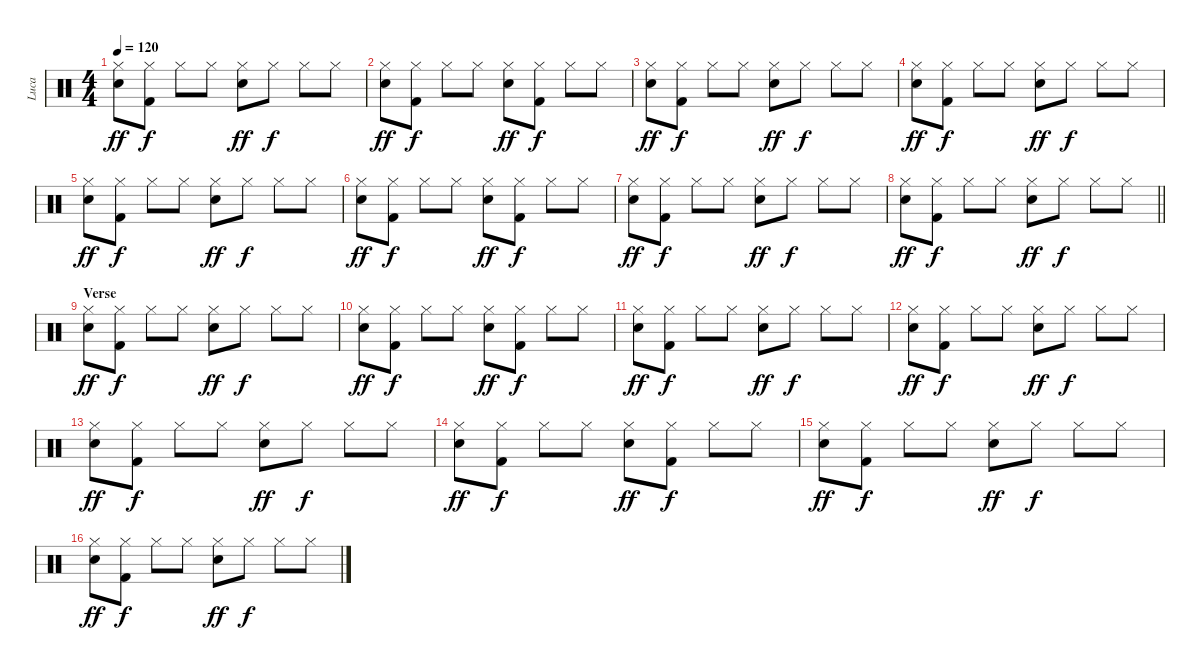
\track ("Luca" "Luca") {instrument percussion}
\staff {score}
\articulation defaults
\ts (4 4)
\tempo 120
\clef neutral
\ks c
("Hi-Hat (closed)" "Snare (hit) 2").8{dy ff} ("Hi-Hat (closed)" "Kick (hit) 2").8{dy f} "Hi-Hat (closed)".8 "Hi-Hat (closed)".8 ("Hi-Hat (closed)" "Snare (hit) 2").8{dy ff} "Hi-Hat (closed)".8{dy f} "Hi-Hat (closed)".8 "Hi-Hat (closed)".8 |
("Hi-Hat (closed)" "Snare (hit) 2").8{dy ff} ("Hi-Hat (closed)" "Kick (hit) 2").8{dy f} "Hi-Hat (closed)".8 "Hi-Hat (closed)".8 ("Hi-Hat (closed)" "Snare (hit) 2").8{dy ff} ("Hi-Hat (closed)" "Kick (hit) 2").8{dy f} "Hi-Hat (closed)".8 "Hi-Hat (closed)".8 |
("Hi-Hat (closed)" "Snare (hit) 2").8{dy ff} ("Hi-Hat (closed)" "Kick (hit) 2").8{dy f} "Hi-Hat (closed)".8 "Hi-Hat (closed)".8 ("Hi-Hat (closed)" "Snare (hit) 2").8{dy ff} "Hi-Hat (closed)".8{dy f} "Hi-Hat (closed)".8 "Hi-Hat (closed)".8 |
("Hi-Hat (closed)" "Snare (hit) 2").8{dy ff} ("Hi-Hat (closed)" "Kick (hit) 2").8{dy f} "Hi-Hat (closed)".8 "Hi-Hat (closed)".8 ("Hi-Hat (closed)" "Snare (hit) 2").8{dy ff} "Hi-Hat (closed)".8{dy f} "Hi-Hat (closed)".8 "Hi-Hat (closed)".8 |
("Hi-Hat (closed)" "Snare (hit) 2").8{dy ff} ("Hi-Hat (closed)" "Kick (hit) 2").8{dy f} "Hi-Hat (closed)".8 "Hi-Hat (closed)".8 ("Hi-Hat (closed)" "Snare (hit) 2").8{dy ff} "Hi-Hat (closed)".8{dy f} "Hi-Hat (closed)".8 "Hi-Hat (closed)".8 |
("Hi-Hat (closed)" "Snare (hit) 2").8{dy ff} ("Hi-Hat (closed)" "Kick (hit) 2").8{dy f} "Hi-Hat (closed)".8 "Hi-Hat (closed)".8 ("Hi-Hat (closed)" "Snare (hit) 2").8{dy ff} ("Hi-Hat (closed)" "Kick (hit) 2").8{dy f} "Hi-Hat (closed)".8 "Hi-Hat (closed)".8 |
("Hi-Hat (closed)" "Snare (hit) 2").8{dy ff} ("Hi-Hat (closed)" "Kick (hit) 2").8{dy f} "Hi-Hat (closed)".8 "Hi-Hat (closed)".8 ("Hi-Hat (closed)" "Snare (hit) 2").8{dy ff} "Hi-Hat (closed)".8{dy f} "Hi-Hat (closed)".8 "Hi-Hat (closed)".8 |
\barLineRight lightlight
("Hi-Hat (closed)" "Snare (hit) 2").8{dy ff} ("Hi-Hat (closed)" "Kick (hit) 2").8{dy f} "Hi-Hat (closed)".8 "Hi-Hat (closed)".8 ("Hi-Hat (closed)" "Snare (hit) 2").8{dy ff} "Hi-Hat (closed)".8{dy f} "Hi-Hat (closed)".8 "Hi-Hat (closed)".8 |
\section ("" "Verse")
("Hi-Hat (closed)" "Snare (hit) 2").8{dy ff} ("Hi-Hat (closed)" "Kick (hit) 2").8{dy f} "Hi-Hat (closed)".8 "Hi-Hat (closed)".8 ("Hi-Hat (closed)" "Snare (hit) 2").8{dy ff} "Hi-Hat (closed)".8{dy f} "Hi-Hat (closed)".8 "Hi-Hat (closed)".8 |
("Hi-Hat (closed)" "Snare (hit) 2").8{dy ff} ("Hi-Hat (closed)" "Kick (hit) 2").8{dy f} "Hi-Hat (closed)".8 "Hi-Hat (closed)".8 ("Hi-Hat (closed)" "Snare (hit) 2").8{dy ff} ("Hi-Hat (closed)" "Kick (hit) 2").8{dy f} "Hi-Hat (closed)".8 "Hi-Hat (closed)".8 |
("Hi-Hat (closed)" "Snare (hit) 2").8{dy ff} ("Hi-Hat (closed)" "Kick (hit) 2").8{dy f} "Hi-Hat (closed)".8 "Hi-Hat (closed)".8 ("Hi-Hat (closed)" "Snare (hit) 2").8{dy ff} "Hi-Hat (closed)".8{dy f} "Hi-Hat (closed)".8 "Hi-Hat (closed)".8 |
("Hi-Hat (closed)" "Snare (hit) 2").8{dy ff} ("Hi-Hat (closed)" "Kick (hit) 2").8{dy f} "Hi-Hat (closed)".8 "Hi-Hat (closed)".8 ("Hi-Hat (closed)" "Snare (hit) 2").8{dy ff} "Hi-Hat (closed)".8{dy f} "Hi-Hat (closed)".8 "Hi-Hat (closed)".8 |
("Hi-Hat (closed)" "Snare (hit) 2").8{dy ff} ("Hi-Hat (closed)" "Kick (hit) 2").8{dy f} "Hi-Hat (closed)".8 "Hi-Hat (closed)".8 ("Hi-Hat (closed)" "Snare (hit) 2").8{dy ff} "Hi-Hat (closed)".8{dy f} "Hi-Hat (closed)".8 "Hi-Hat (closed)".8 |
("Hi-Hat (closed)" "Snare (hit) 2").8{dy ff} ("Hi-Hat (closed)" "Kick (hit) 2").8{dy f} "Hi-Hat (closed)".8 "Hi-Hat (closed)".8 ("Hi-Hat (closed)" "Snare (hit) 2").8{dy ff} ("Hi-Hat (closed)" "Kick (hit) 2").8{dy f} "Hi-Hat (closed)".8 "Hi-Hat (closed)".8 |
("Hi-Hat (closed)" "Snare (hit) 2").8{dy ff} ("Hi-Hat (closed)" "Kick (hit) 2").8{dy f} "Hi-Hat (closed)".8 "Hi-Hat (closed)".8 ("Hi-Hat (closed)" "Snare (hit) 2").8{dy ff} "Hi-Hat (closed)".8{dy f} "Hi-Hat (closed)".8 "Hi-Hat (closed)".8 |
("Hi-Hat (closed)" "Snare (hit) 2").8{dy ff} ("Hi-Hat (closed)" "Kick (hit) 2").8{dy f} "Hi-Hat (closed)".8 "Hi-Hat (closed)".8 ("Hi-Hat (closed)" "Snare (hit) 2").8{dy ff} "Hi-Hat (closed)".8{dy f} "Hi-Hat (closed)".8 "Hi-Hat (closed)".8
